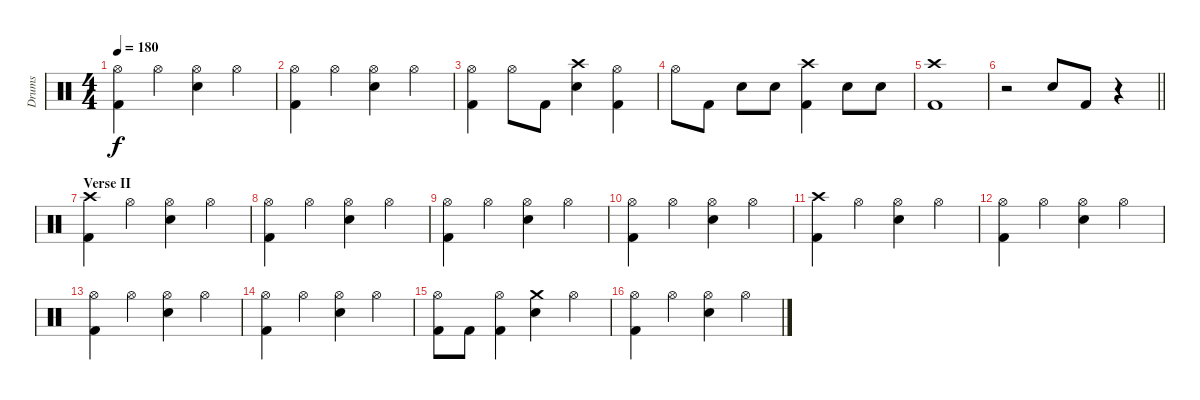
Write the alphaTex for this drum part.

\track ("Drums" "Drums") {instrument percussion}
\staff {score}
\articulation defaults
\ts (4 4)
\tempo 180
\clef neutral
\ks c
("Hi-Hat (open)" "Kick (hit) 2").4{dy f} "Hi-Hat (open)".4 ("Hi-Hat (open)" "Electric Snare (hit)").4 "Hi-Hat (open)".4 |
("Hi-Hat (open)" "Kick (hit) 2").4 "Hi-Hat (open)".4 ("Hi-Hat (open)" "Electric Snare (hit)").4 "Hi-Hat (open)".4 |
("Hi-Hat (open)" "Kick (hit) 2").4 "Hi-Hat (open)".8 "Kick (hit) 2".8 ("Crash high (hit)" "Electric Snare (hit)").4 ("Hi-Hat (open)" "Kick (hit) 2").4 |
"Hi-Hat (open)".8 "Kick (hit) 2".8 "Electric Snare (hit)".8 "Electric Snare (hit)".8 ("Crash high (hit)" "Kick (hit) 2").4 "Electric Snare (hit)".8 "Electric Snare (hit)".8 |
("Crash high (hit)" "Kick (hit) 2").1 |
\barLineRight lightlight
r.2 "Electric Snare (hit)".8 "Kick (hit) 2".8 r.4 |
\section ("" "Verse II")
("Crash high (hit)" "Kick (hit) 2").4 "Hi-Hat (open)".4 ("Hi-Hat (open)" "Electric Snare (hit)").4 "Hi-Hat (open)".4 |
("Hi-Hat (open)" "Kick (hit) 2").4 "Hi-Hat (open)".4 ("Hi-Hat (open)" "Electric Snare (hit)").4 "Hi-Hat (open)".4 |
("Hi-Hat (open)" "Kick (hit) 2").4 "Hi-Hat (open)".4 ("Hi-Hat (open)" "Electric Snare (hit)").4 "Hi-Hat (open)".4 |
("Hi-Hat (open)" "Kick (hit) 2").4 "Hi-Hat (open)".4 ("Hi-Hat (open)" "Electric Snare (hit)").4 "Hi-Hat (open)".4 |
("Crash high (hit)" "Kick (hit) 2").4 "Hi-Hat (open)".4 ("Hi-Hat (open)" "Electric Snare (hit)").4 "Hi-Hat (open)".4 |
("Hi-Hat (open)" "Kick (hit) 2").4 "Hi-Hat (open)".4 ("Hi-Hat (open)" "Electric Snare (hit)").4 "Hi-Hat (open)".4 |
("Hi-Hat (open)" "Kick (hit) 2").4 "Hi-Hat (open)".4 ("Hi-Hat (open)" "Electric Snare (hit)").4 "Hi-Hat (open)".4 |
("Hi-Hat (open)" "Kick (hit) 2").4 "Hi-Hat (open)".4 ("Hi-Hat (open)" "Electric Snare (hit)").4 "Hi-Hat (open)".4 |
("Kick (hit) 2" "Hi-Hat (open)").8 "Kick (hit) 2".8 ("Kick (hit) 2" "Hi-Hat (open)").4 ("Crash medium (hit)" "Electric Snare (hit)").4 "Hi-Hat (open)".4 |
("Hi-Hat (open)" "Kick (hit) 2").4 "Hi-Hat (open)".4 ("Hi-Hat (open)" "Electric Snare (hit)").4 "Hi-Hat (open)".4
